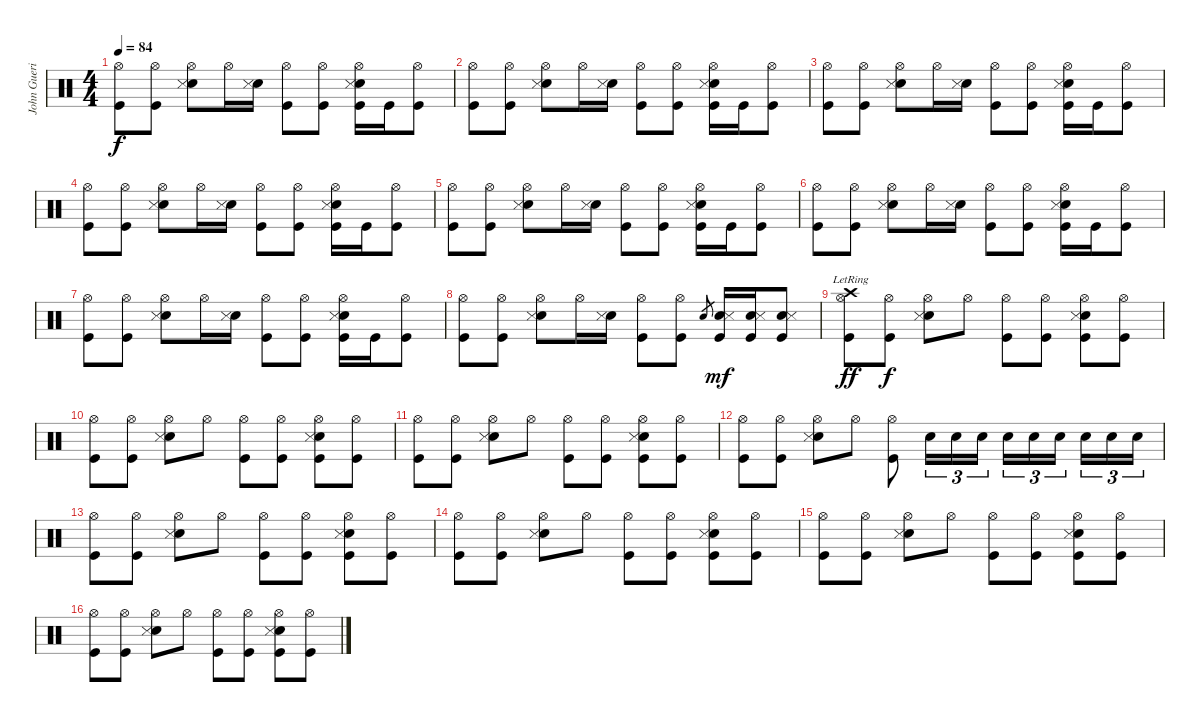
\track ("John Guerin - Drum's" "John Gueri") {instrument percussion}
\staff {score}
\articulation defaults
\ts (4 4)
\tempo 84
\clef neutral
\ks c
("Hi-Hat (open)" "Kick (hit)").8{dy f} ("Hi-Hat (open)" "Kick (hit)").8 ("Hi-Hat (open)" "Electric Snare (hit)" "Snare (side stick) 3").8 "Hi-Hat (open)".16 ("Electric Snare (hit)" "Snare (side stick) 3").16 ("Hi-Hat (open)" "Kick (hit)").8 ("Hi-Hat (open)" "Kick (hit)").8 ("Hi-Hat (open)" "Electric Snare (hit)" "Snare (side stick) 3" "Kick (hit)").16 "Kick (hit)".16 ("Hi-Hat (open)" "Kick (hit)").8 |
("Hi-Hat (open)" "Kick (hit)").8 ("Hi-Hat (open)" "Kick (hit)").8 ("Hi-Hat (open)" "Electric Snare (hit)" "Snare (side stick) 3").8 "Hi-Hat (open)".16 ("Electric Snare (hit)" "Snare (side stick) 3").16 ("Hi-Hat (open)" "Kick (hit)").8 ("Hi-Hat (open)" "Kick (hit)").8 ("Hi-Hat (open)" "Electric Snare (hit)" "Snare (side stick) 3" "Kick (hit)").16 "Kick (hit)".16 ("Hi-Hat (open)" "Kick (hit)").8 |
("Hi-Hat (open)" "Kick (hit)").8 ("Hi-Hat (open)" "Kick (hit)").8 ("Hi-Hat (open)" "Electric Snare (hit)" "Snare (side stick) 3").8 "Hi-Hat (open)".16 ("Electric Snare (hit)" "Snare (side stick) 3").16 ("Hi-Hat (open)" "Kick (hit)").8 ("Hi-Hat (open)" "Kick (hit)").8 ("Hi-Hat (open)" "Electric Snare (hit)" "Snare (side stick) 3" "Kick (hit)").16 "Kick (hit)".16 ("Hi-Hat (open)" "Kick (hit)").8 |
("Hi-Hat (open)" "Kick (hit)").8 ("Hi-Hat (open)" "Kick (hit)").8 ("Hi-Hat (open)" "Electric Snare (hit)" "Snare (side stick) 3").8 "Hi-Hat (open)".16 ("Electric Snare (hit)" "Snare (side stick) 3").16 ("Hi-Hat (open)" "Kick (hit)").8 ("Hi-Hat (open)" "Kick (hit)").8 ("Hi-Hat (open)" "Electric Snare (hit)" "Snare (side stick) 3" "Kick (hit)").16 "Kick (hit)".16 ("Hi-Hat (open)" "Kick (hit)").8 |
("Hi-Hat (open)" "Kick (hit)").8 ("Hi-Hat (open)" "Kick (hit)").8 ("Hi-Hat (open)" "Electric Snare (hit)" "Snare (side stick) 3").8 "Hi-Hat (open)".16 ("Electric Snare (hit)" "Snare (side stick) 3").16 ("Hi-Hat (open)" "Kick (hit)").8 ("Hi-Hat (open)" "Kick (hit)").8 ("Hi-Hat (open)" "Electric Snare (hit)" "Snare (side stick) 3" "Kick (hit)").16 "Kick (hit)".16 ("Hi-Hat (open)" "Kick (hit)").8 |
("Hi-Hat (open)" "Kick (hit)").8 ("Hi-Hat (open)" "Kick (hit)").8 ("Hi-Hat (open)" "Electric Snare (hit)" "Snare (side stick) 3").8 "Hi-Hat (open)".16 ("Electric Snare (hit)" "Snare (side stick) 3").16 ("Hi-Hat (open)" "Kick (hit)").8 ("Hi-Hat (open)" "Kick (hit)").8 ("Hi-Hat (open)" "Electric Snare (hit)" "Snare (side stick) 3" "Kick (hit)").16 "Kick (hit)".16 ("Hi-Hat (open)" "Kick (hit)").8 |
("Hi-Hat (open)" "Kick (hit)").8 ("Hi-Hat (open)" "Kick (hit)").8 ("Hi-Hat (open)" "Electric Snare (hit)" "Snare (side stick) 3").8 "Hi-Hat (open)".16 ("Electric Snare (hit)" "Snare (side stick) 3").16 ("Hi-Hat (open)" "Kick (hit)").8 ("Hi-Hat (open)" "Kick (hit)").8 ("Hi-Hat (open)" "Electric Snare (hit)" "Snare (side stick) 3" "Kick (hit)").16 "Kick (hit)".16 ("Hi-Hat (open)" "Kick (hit)").8 |
("Hi-Hat (open)" "Kick (hit)").8 ("Hi-Hat (open)" "Kick (hit)").8 ("Hi-Hat (open)" "Electric Snare (hit)" "Snare (side stick) 3").8 "Hi-Hat (open)".16 ("Electric Snare (hit)" "Snare (side stick) 3").16 ("Hi-Hat (open)" "Kick (hit)").8 ("Hi-Hat (open)" "Kick (hit)").8 "Electric Snare (hit)".8{gr} ("Electric Snare (hit)" "Snare (side stick) 3" "Kick (hit)").16{dy mf} ("Electric Snare (hit)" "Snare (side stick) 3" "Kick (hit)").16 ("Electric Snare (hit)" "Snare (side stick) 3" "Kick (hit)").8 |
("Crash high (hit)"{lr} "Hi-Hat (open)" "Kick (hit)").8{dy ff} ("Hi-Hat (open)" "Kick (hit)").8{dy f} ("Hi-Hat (open)" "Electric Snare (hit)" "Snare (side stick) 3").8 "Hi-Hat (open)".8 ("Hi-Hat (open)" "Kick (hit)").8 ("Hi-Hat (open)" "Kick (hit)").8 ("Hi-Hat (open)" "Electric Snare (hit)" "Snare (side stick) 3" "Kick (hit)").8 ("Hi-Hat (open)" "Kick (hit)").8 |
("Hi-Hat (open)" "Kick (hit)").8 ("Hi-Hat (open)" "Kick (hit)").8 ("Hi-Hat (open)" "Electric Snare (hit)" "Snare (side stick) 3").8 "Hi-Hat (open)".8 ("Hi-Hat (open)" "Kick (hit)").8 ("Hi-Hat (open)" "Kick (hit)").8 ("Hi-Hat (open)" "Electric Snare (hit)" "Snare (side stick) 3" "Kick (hit)").8 ("Hi-Hat (open)" "Kick (hit)").8 |
("Hi-Hat (open)" "Kick (hit)").8 ("Hi-Hat (open)" "Kick (hit)").8 ("Hi-Hat (open)" "Electric Snare (hit)" "Snare (side stick) 3").8 "Hi-Hat (open)".8 ("Hi-Hat (open)" "Kick (hit)").8 ("Hi-Hat (open)" "Kick (hit)").8 ("Hi-Hat (open)" "Electric Snare (hit)" "Snare (side stick) 3" "Kick (hit)").8 ("Hi-Hat (open)" "Kick (hit)").8 |
("Hi-Hat (open)" "Kick (hit)").8 ("Hi-Hat (open)" "Kick (hit)").8 ("Hi-Hat (open)" "Electric Snare (hit)" "Snare (side stick) 3").8 "Hi-Hat (open)".8 ("Hi-Hat (open)" "Kick (hit)").8 "Electric Snare (hit)".16{tu (3 2)} "Electric Snare (hit)".16{tu (3 2)} "Electric Snare (hit)".16{tu (3 2)} "Electric Snare (hit)".16{tu (3 2)} "Electric Snare (hit)".16{tu (3 2)} "Electric Snare (hit)".16{tu (3 2)} "Electric Snare (hit)".16{tu (3 2)} "Electric Snare (hit)".16{tu (3 2)} "Electric Snare (hit)".16{tu (3 2)} |
("Hi-Hat (open)" "Kick (hit)").8 ("Hi-Hat (open)" "Kick (hit)").8 ("Hi-Hat (open)" "Electric Snare (hit)" "Snare (side stick) 3").8 "Hi-Hat (open)".8 ("Hi-Hat (open)" "Kick (hit)").8 ("Hi-Hat (open)" "Kick (hit)").8 ("Hi-Hat (open)" "Electric Snare (hit)" "Snare (side stick) 3" "Kick (hit)").8 ("Hi-Hat (open)" "Kick (hit)").8 |
("Hi-Hat (open)" "Kick (hit)").8 ("Hi-Hat (open)" "Kick (hit)").8 ("Hi-Hat (open)" "Electric Snare (hit)" "Snare (side stick) 3").8 "Hi-Hat (open)".8 ("Hi-Hat (open)" "Kick (hit)").8 ("Hi-Hat (open)" "Kick (hit)").8 ("Hi-Hat (open)" "Electric Snare (hit)" "Snare (side stick) 3" "Kick (hit)").8 ("Hi-Hat (open)" "Kick (hit)").8 |
("Hi-Hat (open)" "Kick (hit)").8 ("Hi-Hat (open)" "Kick (hit)").8 ("Hi-Hat (open)" "Electric Snare (hit)" "Snare (side stick) 3").8 "Hi-Hat (open)".8 ("Hi-Hat (open)" "Kick (hit)").8 ("Hi-Hat (open)" "Kick (hit)").8 ("Hi-Hat (open)" "Electric Snare (hit)" "Snare (side stick) 3" "Kick (hit)").8 ("Hi-Hat (open)" "Kick (hit)").8 |
("Hi-Hat (open)" "Kick (hit)").8 ("Hi-Hat (open)" "Kick (hit)").8 ("Hi-Hat (open)" "Electric Snare (hit)" "Snare (side stick) 3").8 "Hi-Hat (open)".8 ("Hi-Hat (open)" "Kick (hit)").8 ("Hi-Hat (open)" "Kick (hit)").8 ("Hi-Hat (open)" "Electric Snare (hit)" "Snare (side stick) 3" "Kick (hit)").8 ("Hi-Hat (open)" "Kick (hit)").8
